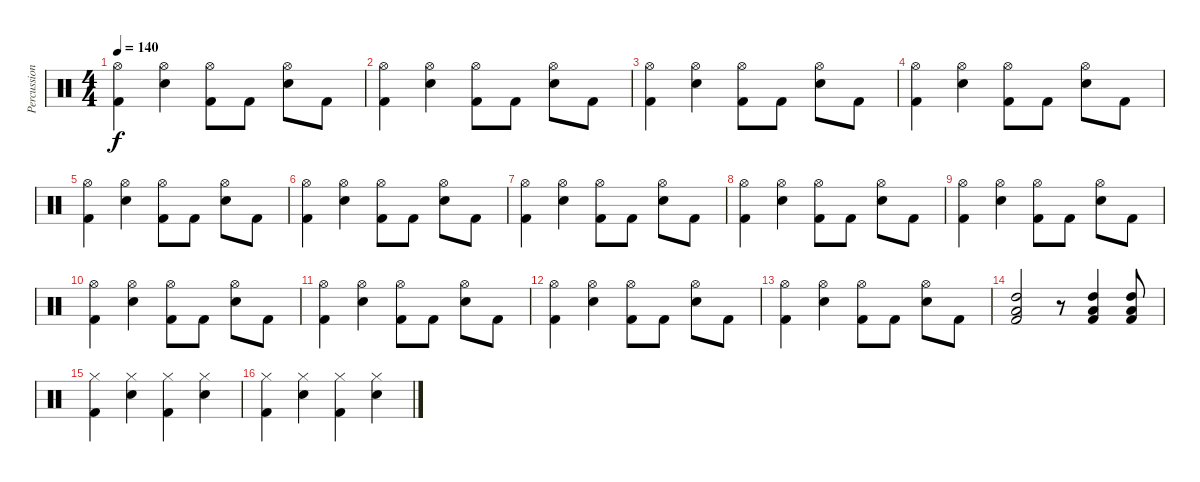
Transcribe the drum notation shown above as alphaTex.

\track ("Percussion" "Percussion") {instrument percussion}
\staff {score}
\articulation defaults
\ts (4 4)
\tempo 140
\clef neutral
\ks c
("Hi-Hat (open)" "Kick (hit) 2").4{dy f} ("Hi-Hat (open)" "Electric Snare (hit)").4 ("Hi-Hat (open)" "Kick (hit) 2").8 "Kick (hit) 2".8 ("Hi-Hat (open)" "Electric Snare (hit)").8 "Kick (hit) 2".8 |
("Hi-Hat (open)" "Kick (hit) 2").4 ("Hi-Hat (open)" "Electric Snare (hit)").4 ("Hi-Hat (open)" "Kick (hit) 2").8 "Kick (hit) 2".8 ("Hi-Hat (open)" "Electric Snare (hit)").8 "Kick (hit) 2".8 |
("Hi-Hat (open)" "Kick (hit) 2").4 ("Hi-Hat (open)" "Electric Snare (hit)").4 ("Hi-Hat (open)" "Kick (hit) 2").8 "Kick (hit) 2".8 ("Hi-Hat (open)" "Electric Snare (hit)").8 "Kick (hit) 2".8 |
("Hi-Hat (open)" "Kick (hit) 2").4 ("Hi-Hat (open)" "Electric Snare (hit)").4 ("Hi-Hat (open)" "Kick (hit) 2").8 "Kick (hit) 2".8 ("Hi-Hat (open)" "Electric Snare (hit)").8 "Kick (hit) 2".8 |
("Hi-Hat (open)" "Kick (hit) 2").4 ("Hi-Hat (open)" "Electric Snare (hit)").4 ("Hi-Hat (open)" "Kick (hit) 2").8 "Kick (hit) 2".8 ("Hi-Hat (open)" "Electric Snare (hit)").8 "Kick (hit) 2".8 |
("Hi-Hat (open)" "Kick (hit) 2").4 ("Hi-Hat (open)" "Electric Snare (hit)").4 ("Hi-Hat (open)" "Kick (hit) 2").8 "Kick (hit) 2".8 ("Hi-Hat (open)" "Electric Snare (hit)").8 "Kick (hit) 2".8 |
("Hi-Hat (open)" "Kick (hit) 2").4 ("Hi-Hat (open)" "Electric Snare (hit)").4 ("Hi-Hat (open)" "Kick (hit) 2").8 "Kick (hit) 2".8 ("Hi-Hat (open)" "Electric Snare (hit)").8 "Kick (hit) 2".8 |
("Hi-Hat (open)" "Kick (hit) 2").4 ("Hi-Hat (open)" "Electric Snare (hit)").4 ("Hi-Hat (open)" "Kick (hit) 2").8 "Kick (hit) 2".8 ("Hi-Hat (open)" "Electric Snare (hit)").8 "Kick (hit) 2".8 |
("Hi-Hat (open)" "Kick (hit) 2").4 ("Hi-Hat (open)" "Electric Snare (hit)").4 ("Hi-Hat (open)" "Kick (hit) 2").8 "Kick (hit) 2".8 ("Hi-Hat (open)" "Electric Snare (hit)").8 "Kick (hit) 2".8 |
("Hi-Hat (open)" "Kick (hit) 2").4 ("Hi-Hat (open)" "Electric Snare (hit)").4 ("Hi-Hat (open)" "Kick (hit) 2").8 "Kick (hit) 2".8 ("Hi-Hat (open)" "Electric Snare (hit)").8 "Kick (hit) 2".8 |
("Hi-Hat (open)" "Kick (hit) 2").4 ("Hi-Hat (open)" "Electric Snare (hit)").4 ("Hi-Hat (open)" "Kick (hit) 2").8 "Kick (hit) 2".8 ("Hi-Hat (open)" "Electric Snare (hit)").8 "Kick (hit) 2".8 |
("Hi-Hat (open)" "Kick (hit) 2").4 ("Hi-Hat (open)" "Electric Snare (hit)").4 ("Hi-Hat (open)" "Kick (hit) 2").8 "Kick (hit) 2".8 ("Hi-Hat (open)" "Electric Snare (hit)").8 "Kick (hit) 2".8 |
("Hi-Hat (open)" "Kick (hit) 2").4 ("Hi-Hat (open)" "Electric Snare (hit)").4 ("Hi-Hat (open)" "Kick (hit) 2").8 "Kick (hit) 2".8 ("Hi-Hat (open)" "Electric Snare (hit)").8 "Kick (hit) 2".8 |
("High Tom (hit)" "Low Tom (hit)" "Kick (hit) 2").2 r.8 ("High Tom (hit)" "Low Tom (hit)" "Kick (hit) 2").4 ("High Tom (hit)" "Low Tom (hit)" "Kick (hit) 2").8 |
("Hi-Hat (closed)" "Kick (hit) 2").4 ("Hi-Hat (closed)" "Electric Snare (hit)").4 ("Hi-Hat (closed)" "Kick (hit) 2").4 ("Hi-Hat (closed)" "Electric Snare (hit)").4 |
("Hi-Hat (closed)" "Kick (hit) 2").4 ("Hi-Hat (closed)" "Electric Snare (hit)").4 ("Hi-Hat (closed)" "Kick (hit) 2").4 ("Hi-Hat (closed)" "Electric Snare (hit)").4
